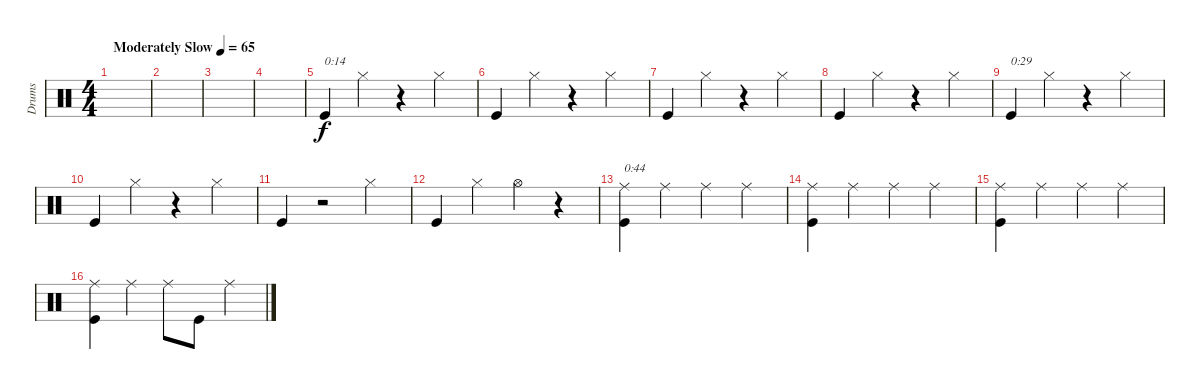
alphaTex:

\track ("Drums" "Drums") {instrument percussion}
\staff {score}
\articulation defaults
\ts (4 4)
\tempo (65 "Moderately Slow")
\clef neutral
\ks c
|
|
|
|
"Kick (hit)".4{txt "0:14"} "Hi-Hat (closed)".4 r.4 "Hi-Hat (closed)".4 |
"Kick (hit)".4 "Hi-Hat (closed)".4 r.4 "Hi-Hat (closed)".4 |
"Kick (hit)".4 "Hi-Hat (closed)".4 r.4 "Hi-Hat (closed)".4 |
"Kick (hit)".4 "Hi-Hat (closed)".4 r.4 "Hi-Hat (closed)".4 |
"Kick (hit)".4{txt "0:29"} "Hi-Hat (closed)".4 r.4 "Hi-Hat (closed)".4 |
"Kick (hit)".4 "Hi-Hat (closed)".4 r.4 "Hi-Hat (closed)".4 |
"Kick (hit)".4 r.2 "Hi-Hat (closed)".4 |
"Kick (hit)".4 "Hi-Hat (closed)".4 "Hi-Hat (open)".4 r.4 |
("Kick (hit)" "Ride (middle)").4{txt "0:44"} "Ride (middle)".4 "Ride (middle)".4 "Ride (middle)".4 |
("Kick (hit)" "Ride (middle)").4 "Ride (middle)".4 "Ride (middle)".4 "Ride (middle)".4 |
("Kick (hit)" "Ride (middle)").4 "Ride (middle)".4 "Ride (middle)".4 "Ride (middle)".4 |
("Kick (hit)" "Ride (middle)").4 "Ride (middle)".4 "Ride (middle)".8 "Kick (hit)".8 "Ride (middle)".4
